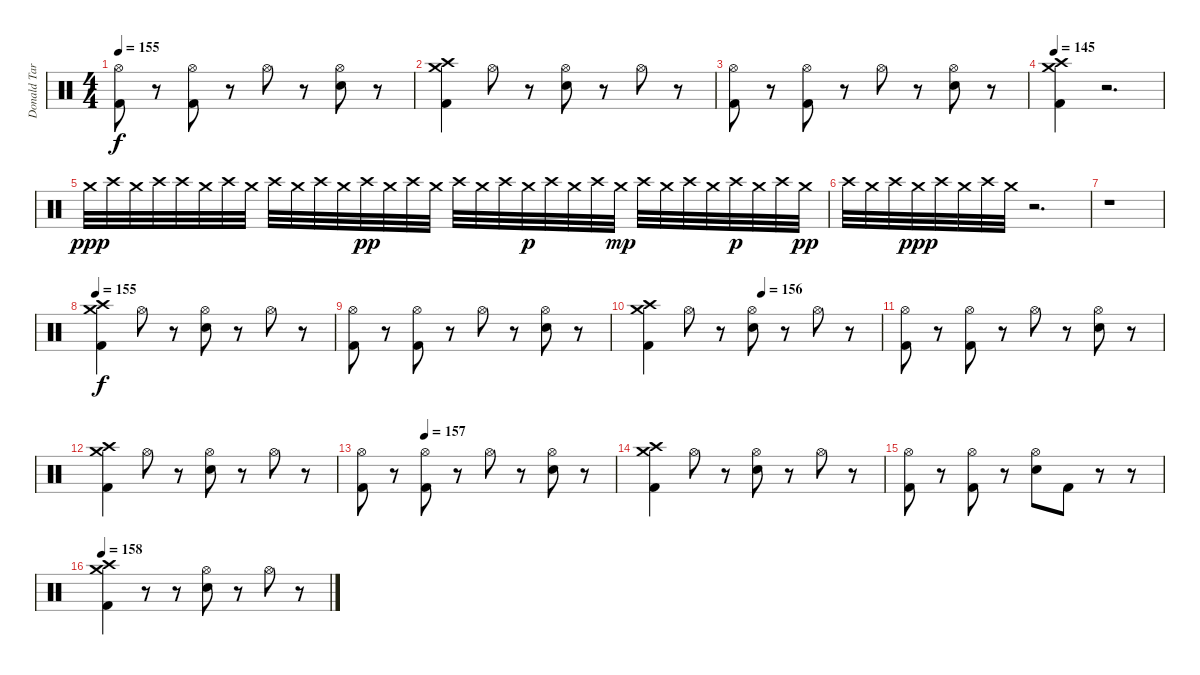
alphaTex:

\track ("Donald Tardy (Drums)" "Donald Tar") {instrument percussion}
\staff {score}
\articulation defaults
\ts (4 4)
\tempo 155
\clef neutral
\ks c
("Kick (hit) 2" "Hi-Hat (open)").8{dy f} r.8 ("Kick (hit) 2" "Hi-Hat (open)").8 r.8 "Hi-Hat (open)".8 r.8 ("Electric Snare (hit)" "Hi-Hat (open)").8 r.8 |
("Kick (hit) 2" "Crash medium (hit)" "Crash high (hit)").4 "Hi-Hat (open)".8 r.8 ("Electric Snare (hit)" "Hi-Hat (open)").8 r.8 "Hi-Hat (open)".8 r.8 |
("Kick (hit) 2" "Hi-Hat (open)").8 r.8 ("Kick (hit) 2" "Hi-Hat (open)").8 r.8 "Hi-Hat (open)".8 r.8 ("Electric Snare (hit)" "Hi-Hat (open)").8 r.8 |
\tempo 145
("Kick (hit) 2" "Crash medium (hit)" "Crash high (hit)").4 r.2{d} |
"Crash medium (hit)".32{dy ppp} "Crash high (hit)".32 "Crash medium (hit)".32 "Crash high (hit)".32 "Crash high (hit)".32 "Crash medium (hit)".32 "Crash high (hit)".32 "Crash medium (hit)".32 "Crash high (hit)".32 "Crash medium (hit)".32 "Crash high (hit)".32 "Crash medium (hit)".32 "Crash high (hit)".32{dy pp} "Crash medium (hit)".32 "Crash high (hit)".32 "Crash medium (hit)".32 "Crash high (hit)".32 "Crash medium (hit)".32 "Crash high (hit)".32 "Crash medium (hit)".32{dy p} "Crash high (hit)".32 "Crash medium (hit)".32 "Crash high (hit)".32 "Crash medium (hit)".32{dy mp} "Crash high (hit)".32 "Crash medium (hit)".32 "Crash high (hit)".32 "Crash medium (hit)".32 "Crash high (hit)".32{dy p} "Crash medium (hit)".32 "Crash high (hit)".32 "Crash medium (hit)".32{dy pp} |
"Crash high (hit)".32 "Crash medium (hit)".32 "Crash high (hit)".32 "Crash medium (hit)".32{dy ppp} "Crash high (hit)".32 "Crash medium (hit)".32 "Crash high (hit)".32 "Crash medium (hit)".32 r.2{d} |
r.1 |
\tempo 155
("Kick (hit) 2" "Crash medium (hit)" "Crash high (hit)").4{dy f} "Hi-Hat (open)".8 r.8 ("Electric Snare (hit)" "Hi-Hat (open)").8 r.8 "Hi-Hat (open)".8 r.8 |
("Kick (hit) 2" "Hi-Hat (open)").8 r.8 ("Kick (hit) 2" "Hi-Hat (open)").8 r.8 "Hi-Hat (open)".8 r.8 ("Electric Snare (hit)" "Hi-Hat (open)").8 r.8 |
\tempo (156 0.5)
("Kick (hit) 2" "Crash medium (hit)" "Crash high (hit)").4 "Hi-Hat (open)".8 r.8 ("Electric Snare (hit)" "Hi-Hat (open)").8 r.8 "Hi-Hat (open)".8 r.8 |
("Kick (hit) 2" "Hi-Hat (open)").8 r.8 ("Kick (hit) 2" "Hi-Hat (open)").8 r.8 "Hi-Hat (open)".8 r.8 ("Electric Snare (hit)" "Hi-Hat (open)").8 r.8 |
("Kick (hit) 2" "Crash medium (hit)" "Crash high (hit)").4 "Hi-Hat (open)".8 r.8 ("Electric Snare (hit)" "Hi-Hat (open)").8 r.8 "Hi-Hat (open)".8 r.8 |
\tempo (157 0.25)
("Kick (hit) 2" "Hi-Hat (open)").8 r.8 ("Kick (hit) 2" "Hi-Hat (open)").8 r.8 "Hi-Hat (open)".8 r.8 ("Electric Snare (hit)" "Hi-Hat (open)").8 r.8 |
("Kick (hit) 2" "Crash medium (hit)" "Crash high (hit)").4 "Hi-Hat (open)".8 r.8 ("Electric Snare (hit)" "Hi-Hat (open)").8 r.8 "Hi-Hat (open)".8 r.8 |
("Kick (hit) 2" "Hi-Hat (open)").8 r.8 ("Kick (hit) 2" "Hi-Hat (open)").8 r.8 ("Electric Snare (hit)" "Hi-Hat (open)").8 "Kick (hit) 2".8 r.8 r.8 |
\tempo 158
("Kick (hit) 2" "Crash medium (hit)" "Crash high (hit)").4 r.8 r.8 ("Electric Snare (hit)" "Hi-Hat (open)").8 r.8 "Hi-Hat (open)".8 r.8
